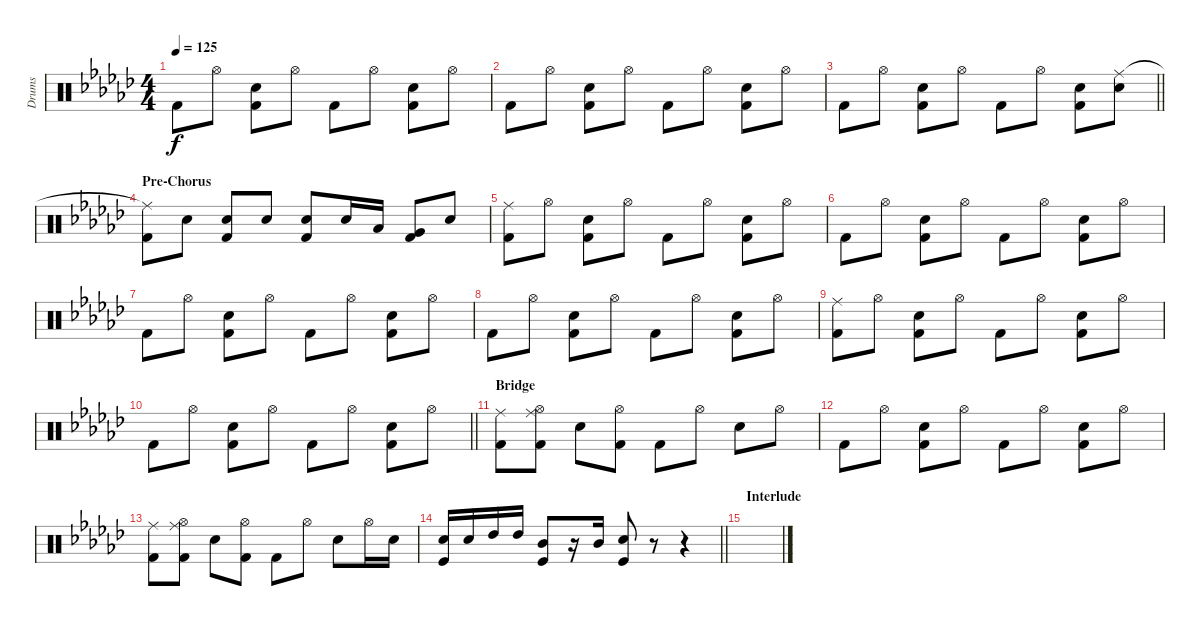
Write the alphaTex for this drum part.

\track ("Drums" "Drums") {instrument percussion}
\staff {score}
\articulation defaults
\ts (4 4)
\tempo 125
\clef neutral
\ks gb "Kick (hit) 2".8{dy f} "Hi-Hat (open)".8
("Snare (hit) 2" "Kick (hit) 2").8 "Hi-Hat (open)".8 "Kick (hit) 2".8 "Hi-Hat (open)".8 ("Snare (hit) 2" "Kick (hit) 2").8 "Hi-Hat (open)".8 |
"Kick (hit) 2".8 "Hi-Hat (open)".8 ("Snare (hit) 2" "Kick (hit) 2").8 "Hi-Hat (open)".8 "Kick (hit) 2".8 "Hi-Hat (open)".8 ("Snare (hit) 2" "Kick (hit) 2").8 "Hi-Hat (open)".8 |
\barLineRight lightlight "Kick (hit) 2".8 "Hi-Hat (open)".8
("Snare (hit) 2" "Kick (hit) 2").8 "Hi-Hat (open)".8 "Kick (hit) 2".8 "Hi-Hat (open)".8 ("Snare (hit) 2" "Kick (hit) 2").8 ("Ride (middle)" "Snare (hit) 2").8 |
\section ("" "Pre-Chorus")
("Ride (middle)"{t} "Kick (hit) 2").8 "Snare (hit) 2".8 ("Snare (hit) 2" "Kick (hit) 2").8 "Snare (hit) 2".8 ("Snare (hit) 2" "Kick (hit) 2").8 "Snare (hit) 2".16 "Low Tom (hit)".16 ("Very Low Tom (hit)" "Kick (hit) 2").8 "Snare (hit) 2".8 |
("Ride (middle)" "Kick (hit) 2").8 "Hi-Hat (open)".8 ("Snare (hit) 2" "Kick (hit) 2").8 "Hi-Hat (open)".8 "Kick (hit) 2".8 "Hi-Hat (open)".8 ("Snare (hit) 2" "Kick (hit) 2").8 "Hi-Hat (open)".8 |
"Kick (hit) 2".8 "Hi-Hat (open)".8 ("Snare (hit) 2" "Kick (hit) 2").8 "Hi-Hat (open)".8 "Kick (hit) 2".8 "Hi-Hat (open)".8 ("Snare (hit) 2" "Kick (hit) 2").8 "Hi-Hat (open)".8 |
"Kick (hit) 2".8 "Hi-Hat (open)".8 ("Snare (hit) 2" "Kick (hit) 2").8 "Hi-Hat (open)".8 "Kick (hit) 2".8 "Hi-Hat (open)".8 ("Snare (hit) 2" "Kick (hit) 2").8 "Hi-Hat (open)".8 |
"Kick (hit) 2".8 "Hi-Hat (open)".8 ("Snare (hit) 2" "Kick (hit) 2").8 "Hi-Hat (open)".8 "Kick (hit) 2".8 "Hi-Hat (open)".8 ("Snare (hit) 2" "Kick (hit) 2").8 "Hi-Hat (open)".8 |
("Ride (middle)" "Kick (hit) 2").8 "Hi-Hat (open)".8 ("Snare (hit) 2" "Kick (hit) 2").8 "Hi-Hat (open)".8 "Kick (hit) 2".8 "Hi-Hat (open)".8 ("Snare (hit) 2" "Kick (hit) 2").8 "Hi-Hat (open)".8 |
\barLineRight lightlight "Kick (hit) 2".8 "Hi-Hat (open)".8
("Snare (hit) 2" "Kick (hit) 2").8 "Hi-Hat (open)".8 "Kick (hit) 2".8 "Hi-Hat (open)".8 ("Snare (hit) 2" "Kick (hit) 2").8 "Hi-Hat (open)".8 |
\section ("" "Bridge")
("Ride (middle)" "Kick (hit) 2").8 ("Ride (middle)" "Hi-Hat (open)" "Kick (hit) 2").8 "Snare (hit) 2".8 ("Hi-Hat (open)" "Kick (hit) 2").8 "Kick (hit) 2".8 "Hi-Hat (open)".8 "Snare (hit) 2".8 "Hi-Hat (open)".8 |
"Kick (hit) 2".8 "Hi-Hat (open)".8 ("Snare (hit) 2" "Kick (hit) 2").8 "Hi-Hat (open)".8 "Kick (hit) 2".8 "Hi-Hat (open)".8 ("Snare (hit) 2" "Kick (hit) 2").8 "Hi-Hat (open)".8 |
("Ride (middle)" "Kick (hit) 2").8 ("Ride (middle)" "Hi-Hat (open)" "Kick (hit) 2").8 "Snare (hit) 2".8 ("Hi-Hat (open)" "Kick (hit) 2").8 "Kick (hit) 2".8 "Hi-Hat (open)".8 "Snare (hit) 2".8 "Hi-Hat (open)".16 "Snare (hit) 2".16 |
\barLineRight lightlight
("Snare (hit) 2" "Kick (hit)").16 "Snare (hit) 2".16 "High Tom (hit)".16 "High Tom (hit)".16 ("Mid Tom (hit)" "Kick (hit)").8 r.16 "Mid Tom (hit)".16 ("Snare (hit) 2" "Kick (hit)").8 r.8 r.4 |
\section ("" "Interlude")
